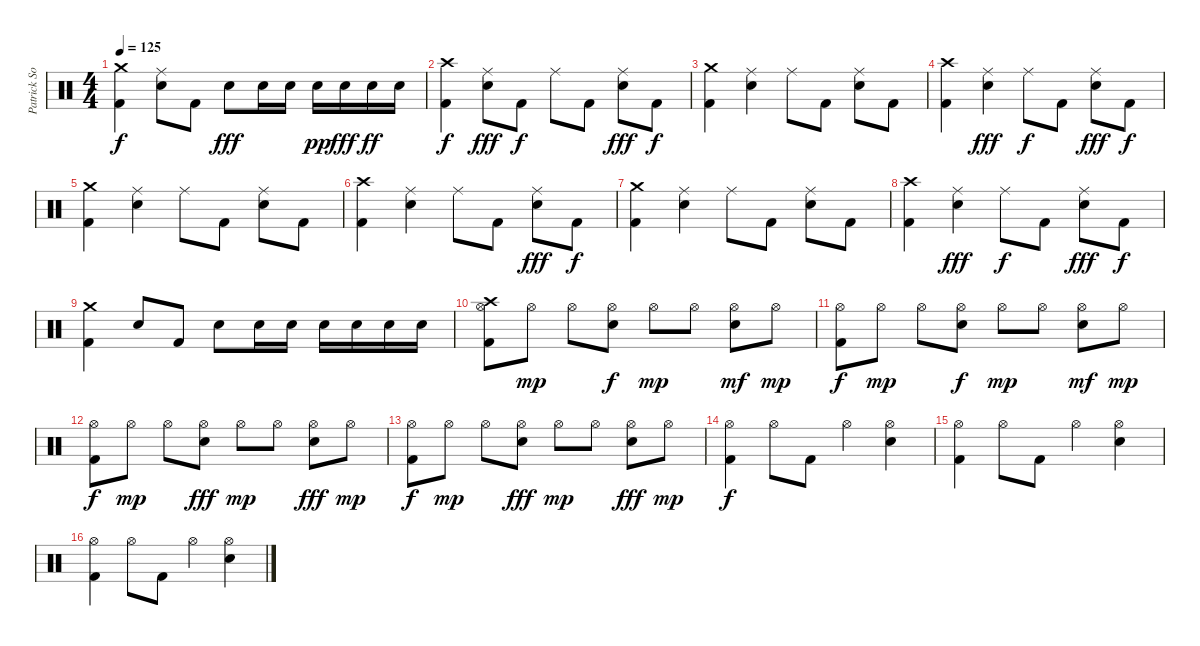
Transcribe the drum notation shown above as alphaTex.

\track ("Patrick Soria" "Patrick So") {instrument percussion}
\staff {score}
\articulation defaults
\ts (4 4)
\tempo 125
\clef neutral
\ks c
("Crash medium (hit)" "Kick (hit) 2").4{dy f} ("Ride (middle)" "Snare (hit) 2").8 "Kick (hit) 2".8 "Snare (hit) 2".8{dy fff} "Snare (hit) 2".16 "Snare (hit) 2".16 "Snare (hit) 2".16{dy pp} "Snare (hit) 2".16{dy fff} "Snare (hit) 2".16{dy ff} "Snare (hit) 2".16 |
("Crash high (hit)" "Kick (hit) 2").4{dy f} ("Ride (middle)" "Snare (hit) 2").8{dy fff} "Kick (hit) 2".8{dy f} "Ride (middle)".8 "Kick (hit) 2".8 ("Ride (middle)" "Snare (hit) 2").8{dy fff} "Kick (hit) 2".8{dy f} |
("Crash medium (hit)" "Kick (hit) 2").4 ("Ride (middle)" "Snare (hit) 2").4 "Ride (middle)".8 "Kick (hit) 2".8 ("Ride (middle)" "Snare (hit) 2").8 "Kick (hit) 2".8 |
("Crash high (hit)" "Kick (hit) 2").4 ("Ride (middle)" "Snare (hit) 2").4{dy fff} "Ride (middle)".8{dy f} "Kick (hit) 2".8 ("Ride (middle)" "Snare (hit) 2").8{dy fff} "Kick (hit) 2".8{dy f} |
("Crash medium (hit)" "Kick (hit) 2").4 ("Ride (middle)" "Snare (hit) 2").4 "Ride (middle)".8 "Kick (hit) 2".8 ("Ride (middle)" "Snare (hit) 2").8 "Kick (hit) 2".8 |
("Crash high (hit)" "Kick (hit) 2").4 ("Ride (middle)" "Snare (hit) 2").4 "Ride (middle)".8 "Kick (hit) 2".8 ("Ride (middle)" "Snare (hit) 2").8{dy fff} "Kick (hit) 2".8{dy f} |
("Crash medium (hit)" "Kick (hit) 2").4 ("Ride (middle)" "Snare (hit) 2").4 "Ride (middle)".8 "Kick (hit) 2".8 ("Ride (middle)" "Snare (hit) 2").8 "Kick (hit) 2".8 |
("Crash high (hit)" "Kick (hit) 2").4 ("Ride (middle)" "Snare (hit) 2").4{dy fff} "Ride (middle)".8{dy f} "Kick (hit) 2".8 ("Ride (middle)" "Snare (hit) 2").8{dy fff} "Kick (hit) 2".8{dy f} |
("Crash medium (hit)" "Kick (hit) 2").4 "Snare (hit) 2".8 "Kick (hit) 2".8 "Snare (hit) 2".8 "Snare (hit) 2".16 "Snare (hit) 2".16 "Snare (hit) 2".16 "Snare (hit) 2".16 "Snare (hit) 2".16 "Snare (hit) 2".16 |
("Hi-Hat (open)" "Crash high (hit)" "Kick (hit) 2").8 "Hi-Hat (open)".8{dy mp} "Hi-Hat (open)".8 ("Hi-Hat (open)" "Snare (hit) 2").8{dy f} "Hi-Hat (open)".8{dy mp} "Hi-Hat (open)".8 ("Hi-Hat (open)" "Snare (hit) 2").8{dy mf} "Hi-Hat (open)".8{dy mp} |
("Hi-Hat (open)" "Kick (hit) 2").8{dy f} "Hi-Hat (open)".8{dy mp} "Hi-Hat (open)".8 ("Hi-Hat (open)" "Snare (hit) 2").8{dy f} "Hi-Hat (open)".8{dy mp} "Hi-Hat (open)".8 ("Hi-Hat (open)" "Snare (hit) 2").8{dy mf} "Hi-Hat (open)".8{dy mp} |
("Hi-Hat (open)" "Kick (hit) 2").8{dy f} "Hi-Hat (open)".8{dy mp} "Hi-Hat (open)".8 ("Hi-Hat (open)" "Snare (hit) 2").8{dy fff} "Hi-Hat (open)".8{dy mp} "Hi-Hat (open)".8 ("Hi-Hat (open)" "Snare (hit) 2").8{dy fff} "Hi-Hat (open)".8{dy mp} |
("Hi-Hat (open)" "Kick (hit) 2").8{dy f} "Hi-Hat (open)".8{dy mp} "Hi-Hat (open)".8 ("Hi-Hat (open)" "Snare (hit) 2").8{dy fff} "Hi-Hat (open)".8{dy mp} "Hi-Hat (open)".8 ("Hi-Hat (open)" "Snare (hit) 2").8{dy fff} "Hi-Hat (open)".8{dy mp} |
("Hi-Hat (open)" "Kick (hit) 2").4{dy f} "Hi-Hat (open)".8 "Kick (hit) 2".8 "Hi-Hat (open)".4 ("Hi-Hat (open)" "Snare (hit) 2").4 |
("Hi-Hat (open)" "Kick (hit) 2").4 "Hi-Hat (open)".8 "Kick (hit) 2".8 "Hi-Hat (open)".4 ("Hi-Hat (open)" "Snare (hit) 2").4 |
("Hi-Hat (open)" "Kick (hit) 2").4 "Hi-Hat (open)".8 "Kick (hit) 2".8 "Hi-Hat (open)".4 ("Hi-Hat (open)" "Snare (hit) 2").4
